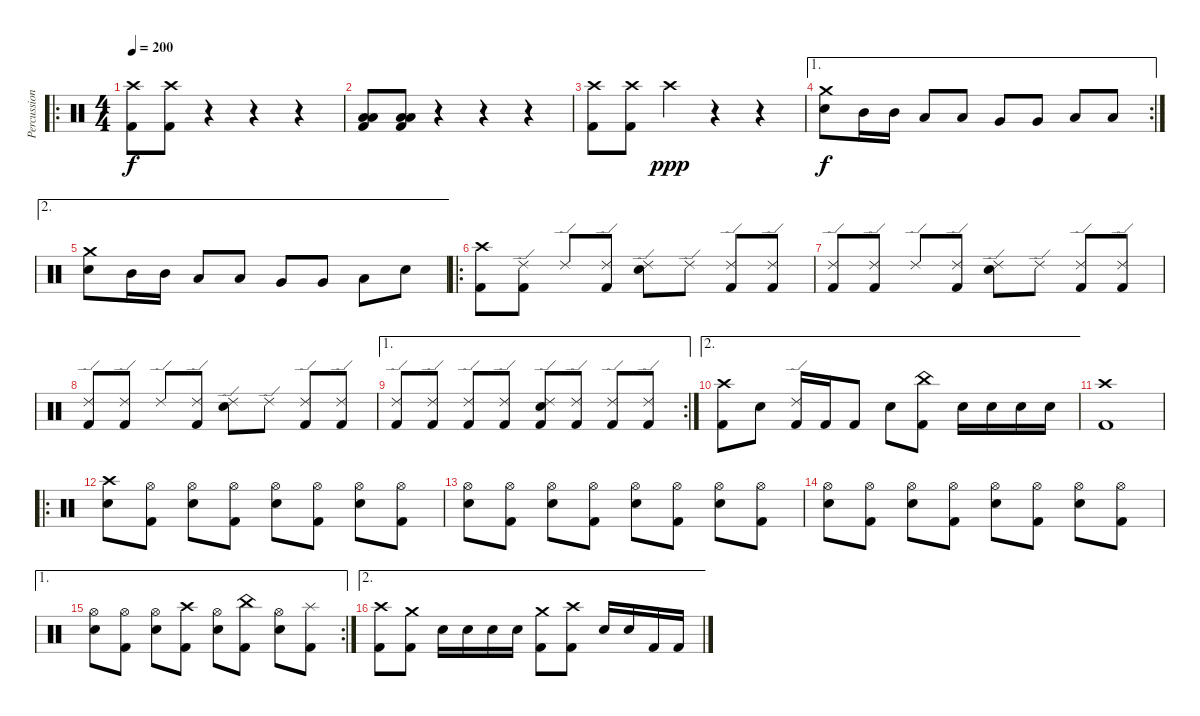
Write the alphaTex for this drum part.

\track ("Percussions" "Percussion") {instrument percussion}
\staff {score}
\articulation defaults
\ro
\ts (4 4)
\tempo 200
\clef neutral
\ks c
("Crash high (hit)" "Kick (hit) 2").8{dy f} ("Crash high (hit)" "Kick (hit) 2").8 r.4 r.4 r.4 |
("Low Floor Tom (hit)" "Low Floor Tom (hit)" "Kick (hit) 2").8 ("Low Floor Tom (hit)" "Low Floor Tom (hit)" "Kick (hit) 2").8 r.4 r.4 r.4 |
("Crash high (hit)" "Kick (hit) 2").8 ("Crash high (hit)" "Kick (hit) 2").8 "Crash high (hit)".4{dy ppp} r.4 r.4 |
\ae 1
\rc 2
("Crash medium (hit)" "Snare (hit) 2").8{dy f} "Mid Tom (hit)".16 "Mid Tom (hit)".16 "Low Tom (hit)".8 "Low Tom (hit)".8 "Very Low Tom (hit)".8 "Very Low Tom (hit)".8 "Low Floor Tom (hit)".8 "Low Floor Tom (hit)".8 |
\ae 2
("Crash medium (hit)" "Snare (hit) 2").8 "Mid Tom (hit)".16 "Mid Tom (hit)".16 "Low Tom (hit)".8 "Low Tom (hit)".8 "Very Low Tom (hit)".8 "Very Low Tom (hit)".8 "Low Floor Tom (hit)".8 "Snare (hit) 2".8 |
\ro
("Crash high (hit)" "Kick (hit) 2").8 ("Ride (edge) 2" "Kick (hit) 2").8 "Ride (edge) 2".8 ("Ride (edge) 2" "Kick (hit) 2").8 ("Ride (edge) 2" "Snare (hit) 2").8 "Ride (edge) 2".8 ("Ride (edge) 2" "Kick (hit) 2").8 ("Ride (edge) 2" "Kick (hit) 2").8 |
("Ride (edge) 2" "Kick (hit) 2").8 ("Ride (edge) 2" "Kick (hit) 2").8 "Ride (edge) 2".8 ("Ride (edge) 2" "Kick (hit) 2").8 ("Ride (edge) 2" "Snare (hit) 2").8 "Ride (edge) 2".8 ("Ride (edge) 2" "Kick (hit) 2").8 ("Ride (edge) 2" "Kick (hit) 2").8 |
("Ride (edge) 2" "Kick (hit) 2").8 ("Ride (edge) 2" "Kick (hit) 2").8 "Ride (edge) 2".8 ("Ride (edge) 2" "Kick (hit) 2").8 ("Ride (edge) 2" "Snare (hit) 2").8 "Ride (edge) 2".8 ("Ride (edge) 2" "Kick (hit) 2").8 ("Ride (edge) 2" "Kick (hit) 2").8 |
\ae 1
\rc 2
("Ride (edge) 2" "Kick (hit) 2").8 ("Ride (edge) 2" "Kick (hit) 2").8 ("Ride (edge) 2" "Kick (hit) 2").8 ("Ride (edge) 2" "Kick (hit) 2").8 ("Ride (edge) 2" "Snare (hit) 2" "Kick (hit) 2").8 ("Ride (edge) 2" "Kick (hit) 2").8 ("Ride (edge) 2" "Kick (hit) 2").8 ("Ride (edge) 2" "Kick (hit) 2").8 |
\ae 2
("Crash high (hit)" "Kick (hit) 2").8 "Snare (hit) 2".8 ("Ride (edge) 2" "Kick (hit) 2").16 "Kick (hit) 2".16 "Kick (hit) 2".8 "Snare (hit) 2".8 ("China (hit)" "Kick (hit) 2").8 "Snare (hit) 2".16 "Snare (hit) 2".16 "Snare (hit) 2".16 "Snare (hit) 2".16 |
("Crash high (hit)" "Kick (hit) 2").1 |
\ro
("Crash high (hit)" "Snare (hit) 2").8 ("Hi-Hat (open)" "Kick (hit) 2").8 ("Hi-Hat (open)" "Snare (hit) 2").8 ("Hi-Hat (open)" "Kick (hit) 2").8 ("Hi-Hat (open)" "Snare (hit) 2").8 ("Hi-Hat (open)" "Kick (hit) 2").8 ("Hi-Hat (open)" "Snare (hit) 2").8 ("Hi-Hat (open)" "Kick (hit) 2").8 |
("Hi-Hat (open)" "Snare (hit) 2").8 ("Hi-Hat (open)" "Kick (hit) 2").8 ("Hi-Hat (open)" "Snare (hit) 2").8 ("Hi-Hat (open)" "Kick (hit) 2").8 ("Hi-Hat (open)" "Snare (hit) 2").8 ("Hi-Hat (open)" "Kick (hit) 2").8 ("Hi-Hat (open)" "Snare (hit) 2").8 ("Hi-Hat (open)" "Kick (hit) 2").8 |
("Hi-Hat (open)" "Snare (hit) 2").8 ("Hi-Hat (open)" "Kick (hit) 2").8 ("Hi-Hat (open)" "Snare (hit) 2").8 ("Hi-Hat (open)" "Kick (hit) 2").8 ("Hi-Hat (open)" "Snare (hit) 2").8 ("Hi-Hat (open)" "Kick (hit) 2").8 ("Hi-Hat (open)" "Snare (hit) 2").8 ("Hi-Hat (open)" "Kick (hit) 2").8 |
\ae 1
\rc 2
("Hi-Hat (open)" "Snare (hit) 2").8 ("Hi-Hat (open)" "Kick (hit) 2").8 ("Hi-Hat (open)" "Snare (hit) 2").8 ("Crash high (hit)" "Kick (hit) 2").8 ("Hi-Hat (open)" "Snare (hit) 2").8 ("China (hit)" "Kick (hit) 2").8 ("Hi-Hat (open)" "Snare (hit) 2").8 ("Splash (hit)" "Kick (hit) 2").8 |
\ae 2
("Crash high (hit)" "Kick (hit) 2").8 ("Crash medium (hit)" "Kick (hit) 2").8 "Snare (hit) 2".16 "Snare (hit) 2".16 "Snare (hit) 2".16 "Snare (hit) 2".16 ("Crash medium (hit)" "Kick (hit) 2").8 ("Crash high (hit)" "Kick (hit) 2").8 "Snare (hit) 2".16 "Snare (hit) 2".16 "Kick (hit) 2".16 "Kick (hit) 2".16
